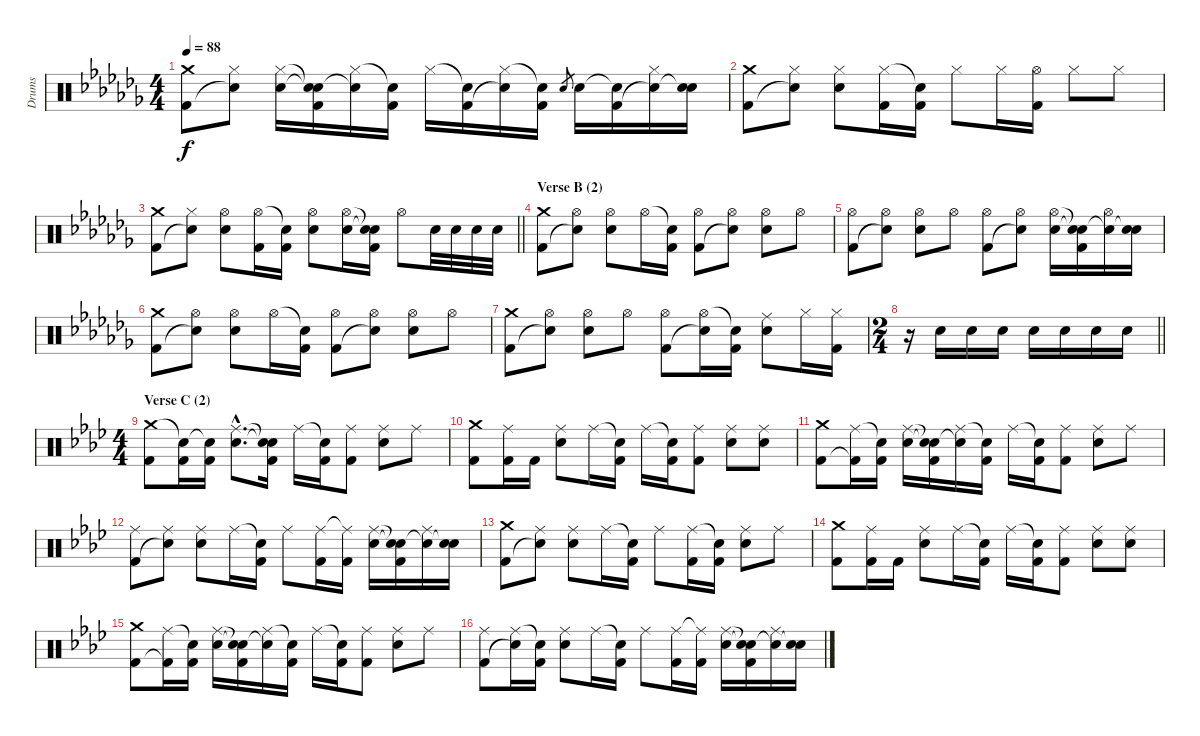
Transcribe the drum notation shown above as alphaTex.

\track ("Drums" "Drums") {instrument percussion}
\staff {score}
\articulation defaults
\ts (4 4)
\tempo 88
\clef neutral
\ks abminor
("Crash medium (hit)" "Kick (hit) 2").8{dy f} ("Hi-Hat (closed)" "Snare (hit)"{t}).8 ("Hi-Hat (closed)" "Electric Snare (hit)").16 ("Snare (hit)"{t} "Snare (hit)"{t} "Kick (hit) 2").16 ("Hi-Hat (closed)" "Snare (hit)"{t}).16 ("Snare (hit)"{t} "Kick (hit) 2").16 "Hi-Hat (closed)".16 ("Snare (hit)"{t} "Kick (hit) 2").16 ("Hi-Hat (closed)" "Snare (hit)"{t}).16 ("Snare (hit)"{t} "Kick (hit) 2").16 "Electric Snare (hit)".8{gr} "Electric Snare (hit)".16 ("Snare (hit)"{t} "Kick (hit) 2").16 ("Hi-Hat (closed)" "Snare (hit)"{t}).16 ("Electric Snare (hit)" "Snare (hit)"{t}).16 |
("Crash medium (hit)" "Kick (hit) 2").8 ("Hi-Hat (closed)" "Snare (hit)"{t}).8 ("Hi-Hat (closed)" "Electric Snare (hit)").8 ("Hi-Hat (closed)" "Kick (hit) 2").16 ("Snare (hit)"{t} "Kick (hit) 2").16 "Hi-Hat (closed)".8 "Hi-Hat (closed)".16 ("Hi-Hat (open)" "Kick (hit) 2").16 "Hi-Hat (closed)".8 "Hi-Hat (closed)".8 |
\barLineRight lightlight
("Crash medium (hit)" "Kick (hit) 2").8 ("Hi-Hat (closed)" "Snare (hit)"{t}).8 ("Hi-Hat (open)" "Electric Snare (hit)").8 ("Hi-Hat (open)" "Kick (hit) 2").16 ("Snare (hit)"{t} "Kick (hit) 2").16 ("Hi-Hat (open)" "Electric Snare (hit)").8 ("Hi-Hat (open)" "Electric Snare (hit)").16 ("Snare (hit)"{t} "Snare (hit)"{t} "Kick (hit) 2").16 "Hi-Hat (open)".8 "Electric Snare (hit)".32 "Electric Snare (hit)".32 "Electric Snare (hit)".32 "Electric Snare (hit)".32 |
\section ("" "Verse B (2)")
("Crash medium (hit)" "Kick (hit) 2").8 ("Hi-Hat (open)" "Snare (hit)"{t}).8 ("Hi-Hat (open)" "Electric Snare (hit)").8 "Hi-Hat (open)".16 ("Snare (hit)"{t} "Kick (hit) 2").16 ("Hi-Hat (open)" "Kick (hit) 2").8 ("Hi-Hat (open)" "Snare (hit)"{t}).8 ("Hi-Hat (open)" "Electric Snare (hit)").8 "Hi-Hat (open)".8 |
("Hi-Hat (open)" "Kick (hit) 2").8 ("Hi-Hat (open)" "Snare (hit)"{t}).8 ("Hi-Hat (open)" "Electric Snare (hit)").8 "Hi-Hat (open)".8 ("Hi-Hat (open)" "Kick (hit) 2").8 ("Hi-Hat (open)" "Snare (hit)"{t}).8 ("Hi-Hat (open)" "Electric Snare (hit)").16 ("Snare (hit)"{t} "Snare (hit)"{t} "Kick (hit) 2").16 ("Hi-Hat (open)" "Snare (hit)"{t}).16 ("Electric Snare (hit)" "Snare (hit)"{t}).16 |
("Crash medium (hit)" "Kick (hit) 2").8 ("Hi-Hat (open)" "Snare (hit)"{t}).8 ("Hi-Hat (open)" "Electric Snare (hit)").8 "Hi-Hat (open)".16 ("Snare (hit)"{t} "Kick (hit) 2").16 ("Hi-Hat (open)" "Kick (hit) 2").8 ("Hi-Hat (open)" "Snare (hit)"{t}).8 ("Hi-Hat (open)" "Electric Snare (hit)").8 "Hi-Hat (open)".8 |
("Crash medium (hit)" "Kick (hit) 2").8 ("Hi-Hat (open)" "Snare (hit)"{t}).8 ("Hi-Hat (open)" "Electric Snare (hit)").8 "Hi-Hat (open)".8 ("Hi-Hat (open)" "Kick (hit) 2").8 ("Hi-Hat (open)" "Snare (hit)"{t}).16 ("Snare (hit)"{t} "Kick (hit) 2").16 ("Ride (middle)" "Electric Snare (hit)").8 "Hi-Hat (closed)".16 ("Hi-Hat (closed)" "Kick (hit) 2").16 |
\ts (2 4)
\barLineRight lightlight
r.16 "Electric Snare (hit)".16 "Electric Snare (hit)".16 "Electric Snare (hit)".16 "Electric Snare (hit)".16 "Electric Snare (hit)".16 "Electric Snare (hit)".16 "Electric Snare (hit)".16 |
\ts (4 4)
\section ("" "Verse C (2)")
\ks fminor
("Crash medium (hit)" "Kick (hit) 2").8 ("Snare (hit)"{t} "Kick (hit) 2").16 ("Snare (hit)"{t} "Kick (hit) 2").16 ("Ride (middle)"{hac} "Electric Snare (hit)"{hac}).8{d} ("Snare (hit)"{t} "Snare (hit)"{t} "Kick (hit) 2").16 "Ride (middle)".16 ("Snare (hit)"{t} "Kick (hit) 2").16 ("Ride (middle)" "Kick (hit) 2").8 ("Ride (middle)" "Electric Snare (hit)").8 "Ride (middle)".8 |
("Crash medium (hit)" "Kick (hit) 2").8 ("Ride (middle)" "Kick (hit) 2").16 "Kick (hit) 2".16 ("Ride (middle)" "Electric Snare (hit)").8 "Ride (middle)".16 ("Snare (hit)"{t} "Kick (hit) 2").16 "Ride (middle)".16 ("Snare (hit)"{t} "Kick (hit) 2").16 ("Ride (middle)" "Kick (hit) 2").8 ("Ride (middle)" "Electric Snare (hit)").8 ("Ride (middle)" "Electric Snare (hit)").8 |
("Crash medium (hit)" "Kick (hit) 2").8 ("Ride (middle)" "Kick (hit) 2"{t}).16 ("Snare (hit)"{t} "Kick (hit) 2").16 ("Ride (middle)" "Electric Snare (hit)").16 ("Snare (hit)"{t} "Snare (hit)"{t} "Kick (hit) 2").16 ("Ride (middle)" "Snare (hit)"{t}).16 ("Snare (hit)"{t} "Kick (hit) 2").16 "Ride (middle)".16 ("Snare (hit)"{t} "Kick (hit) 2").16 ("Ride (middle)" "Kick (hit) 2").8 ("Ride (middle)" "Electric Snare (hit)").8 "Ride (middle)".8 |
("Ride (middle)" "Kick (hit) 2").8 ("Ride (middle)" "Snare (hit)"{t}).8 ("Ride (middle)" "Electric Snare (hit)").8 "Ride (middle)".16 ("Snare (hit)"{t} "Kick (hit) 2").16 "Ride (middle)".8 ("Ride (middle)" "Kick (hit) 2").16 ("Ride (middle)"{t} "Kick (hit) 2").16 ("Ride (middle)" "Electric Snare (hit)").16 ("Snare (hit)"{t} "Snare (hit)"{t} "Kick (hit) 2").16 ("Ride (middle)" "Snare (hit)"{t}).16 ("Electric Snare (hit)" "Snare (hit)"{t}).16 |
("Crash medium (hit)" "Kick (hit) 2").8 ("Ride (middle)" "Snare (hit)"{t}).8 ("Ride (middle)" "Electric Snare (hit)").8 "Ride (middle)".16 ("Snare (hit)"{t} "Kick (hit) 2").16 "Ride (middle)".8 ("Ride (middle)" "Kick (hit) 2").16 ("Snare (hit)"{t} "Kick (hit) 2").16 ("Ride (middle)" "Electric Snare (hit)").8 "Ride (middle)".8 |
("Crash medium (hit)" "Kick (hit) 2").8 ("Ride (middle)" "Kick (hit) 2").16 "Kick (hit) 2".16 ("Ride (middle)" "Electric Snare (hit)").8 "Ride (middle)".16 ("Snare (hit)"{t} "Kick (hit) 2").16 "Ride (middle)".16 ("Snare (hit)"{t} "Kick (hit) 2").16 ("Ride (middle)" "Kick (hit) 2").8 ("Ride (middle)" "Electric Snare (hit)").8 ("Ride (middle)" "Electric Snare (hit)").8 |
("Crash medium (hit)" "Kick (hit) 2").8 ("Ride (middle)" "Kick (hit) 2"{t}).16 ("Snare (hit)"{t} "Kick (hit) 2").16 ("Ride (middle)" "Electric Snare (hit)").16 ("Snare (hit)"{t} "Snare (hit)"{t} "Kick (hit) 2").16 ("Ride (middle)" "Snare (hit)"{t}).16 ("Snare (hit)"{t} "Kick (hit) 2").16 "Ride (middle)".16 ("Snare (hit)"{t} "Kick (hit) 2").16 ("Ride (middle)" "Kick (hit) 2").8 ("Ride (middle)" "Electric Snare (hit)").8 "Ride (middle)".8 |
("Ride (middle)" "Kick (hit) 2").8 ("Ride (middle)" "Snare (hit)"{t}).16 ("Snare (hit)"{t} "Kick (hit) 2").16 ("Ride (middle)" "Electric Snare (hit)").8 "Ride (middle)".16 ("Snare (hit)"{t} "Kick (hit) 2").16 "Ride (middle)".8 ("Ride (middle)" "Kick (hit) 2").16 ("Ride (middle)"{t} "Kick (hit) 2").16 ("Ride (middle)" "Electric Snare (hit)").16 ("Snare (hit)"{t} "Snare (hit)"{t} "Kick (hit) 2").16 ("Ride (middle)" "Snare (hit)"{t}).16 ("Electric Snare (hit)" "Snare (hit)"{t}).16
